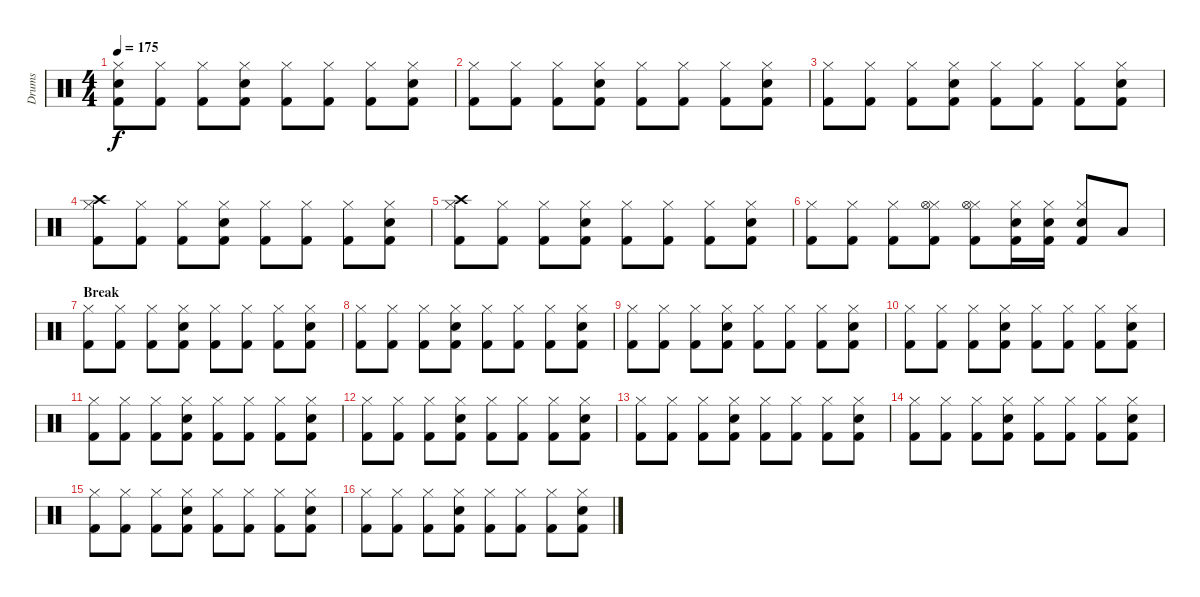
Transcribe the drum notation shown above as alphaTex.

\track ("Drums" "Drums") {instrument percussion}
\staff {score}
\articulation defaults
\ts (4 4)
\tempo 175
\clef neutral
\ks c
("Kick (hit) 2" "Hi-Hat (closed)" "Metronome (bell)").8{dy f} ("Kick (hit) 2" "Hi-Hat (closed)").8 ("Kick (hit) 2" "Hi-Hat (closed)").8 ("Kick (hit) 2" "Hi-Hat (closed)" "Snare (hit) 2").8 ("Kick (hit) 2" "Hi-Hat (closed)").8 ("Kick (hit) 2" "Hi-Hat (closed)").8 ("Kick (hit) 2" "Hi-Hat (closed)").8 ("Kick (hit) 2" "Hi-Hat (closed)" "Snare (hit) 2").8 |
("Kick (hit) 2" "Hi-Hat (closed)").8 ("Kick (hit) 2" "Hi-Hat (closed)").8 ("Kick (hit) 2" "Hi-Hat (closed)").8 ("Kick (hit) 2" "Hi-Hat (closed)" "Snare (hit) 2").8 ("Kick (hit) 2" "Hi-Hat (closed)").8 ("Kick (hit) 2" "Hi-Hat (closed)").8 ("Kick (hit) 2" "Hi-Hat (closed)").8 ("Kick (hit) 2" "Hi-Hat (closed)" "Snare (hit) 2").8 |
("Kick (hit) 2" "Hi-Hat (closed)").8 ("Kick (hit) 2" "Hi-Hat (closed)").8 ("Kick (hit) 2" "Hi-Hat (closed)").8 ("Kick (hit) 2" "Hi-Hat (closed)" "Snare (hit) 2").8 ("Kick (hit) 2" "Hi-Hat (closed)").8 ("Kick (hit) 2" "Hi-Hat (closed)").8 ("Kick (hit) 2" "Hi-Hat (closed)").8 ("Kick (hit) 2" "Hi-Hat (closed)" "Snare (hit) 2").8 |
("Kick (hit) 2" "Hi-Hat (closed)" "Crash high (hit)").8 ("Kick (hit) 2" "Hi-Hat (closed)").8 ("Kick (hit) 2" "Hi-Hat (closed)").8 ("Kick (hit) 2" "Hi-Hat (closed)" "Snare (hit) 2").8 ("Kick (hit) 2" "Hi-Hat (closed)").8 ("Kick (hit) 2" "Hi-Hat (closed)").8 ("Kick (hit) 2" "Hi-Hat (closed)").8 ("Kick (hit) 2" "Hi-Hat (closed)" "Snare (hit) 2").8 |
("Kick (hit) 2" "Hi-Hat (closed)" "Crash high (hit)").8 ("Kick (hit) 2" "Hi-Hat (closed)").8 ("Kick (hit) 2" "Hi-Hat (closed)").8 ("Kick (hit) 2" "Hi-Hat (closed)" "Snare (hit) 2").8 ("Kick (hit) 2" "Hi-Hat (closed)").8 ("Kick (hit) 2" "Hi-Hat (closed)").8 ("Kick (hit) 2" "Hi-Hat (closed)").8 ("Kick (hit) 2" "Hi-Hat (closed)" "Snare (hit) 2").8 |
("Kick (hit) 2" "Hi-Hat (closed)").8 ("Kick (hit) 2" "Hi-Hat (closed)").8 ("Kick (hit) 2" "Hi-Hat (closed)").8 ("Kick (hit) 2" "Hi-Hat (closed)" "Hi-Hat (open)").8 ("Kick (hit) 2" "Hi-Hat (closed)" "Hi-Hat (open)").8 ("Kick (hit) 2" "Hi-Hat (closed)" "Snare (hit) 2").16 ("Kick (hit) 2"{x} "Hi-Hat (closed)"{x} "Snare (hit) 2").16 ("Kick (hit) 2" "Hi-Hat (closed)" "Snare (hit) 2").8 "Low Floor Tom (hit)".8 |
\section ("" "Break")
("Kick (hit) 2" "Hi-Hat (closed)").8 ("Kick (hit) 2" "Hi-Hat (closed)").8 ("Kick (hit) 2" "Hi-Hat (closed)").8 ("Kick (hit) 2" "Hi-Hat (closed)" "Snare (hit) 2").8 ("Kick (hit) 2" "Hi-Hat (closed)").8 ("Kick (hit) 2" "Hi-Hat (closed)").8 ("Kick (hit) 2" "Hi-Hat (closed)").8 ("Kick (hit) 2" "Hi-Hat (closed)" "Snare (hit) 2").8 |
("Kick (hit) 2" "Hi-Hat (closed)").8 ("Kick (hit) 2" "Hi-Hat (closed)").8 ("Kick (hit) 2" "Hi-Hat (closed)").8 ("Kick (hit) 2" "Hi-Hat (closed)" "Snare (hit) 2").8 ("Kick (hit) 2" "Hi-Hat (closed)").8 ("Kick (hit) 2" "Hi-Hat (closed)").8 ("Kick (hit) 2" "Hi-Hat (closed)").8 ("Kick (hit) 2" "Hi-Hat (closed)" "Snare (hit) 2").8 |
("Kick (hit) 2" "Hi-Hat (closed)").8 ("Kick (hit) 2" "Hi-Hat (closed)").8 ("Kick (hit) 2" "Hi-Hat (closed)").8 ("Kick (hit) 2" "Hi-Hat (closed)" "Snare (hit) 2").8 ("Kick (hit) 2" "Hi-Hat (closed)").8 ("Kick (hit) 2" "Hi-Hat (closed)").8 ("Kick (hit) 2" "Hi-Hat (closed)").8 ("Kick (hit) 2" "Hi-Hat (closed)" "Snare (hit) 2").8 |
("Kick (hit) 2" "Hi-Hat (closed)").8 ("Kick (hit) 2" "Hi-Hat (closed)").8 ("Kick (hit) 2" "Hi-Hat (closed)").8 ("Kick (hit) 2" "Hi-Hat (closed)" "Snare (hit) 2").8 ("Kick (hit) 2" "Hi-Hat (closed)").8 ("Kick (hit) 2" "Hi-Hat (closed)").8 ("Kick (hit) 2" "Hi-Hat (closed)").8 ("Kick (hit) 2" "Hi-Hat (closed)" "Snare (hit) 2").8 |
("Kick (hit) 2" "Hi-Hat (closed)").8 ("Kick (hit) 2" "Hi-Hat (closed)").8 ("Kick (hit) 2" "Hi-Hat (closed)").8 ("Kick (hit) 2" "Hi-Hat (closed)" "Snare (hit) 2").8 ("Kick (hit) 2" "Hi-Hat (closed)").8 ("Kick (hit) 2" "Hi-Hat (closed)").8 ("Kick (hit) 2" "Hi-Hat (closed)").8 ("Kick (hit) 2" "Hi-Hat (closed)" "Snare (hit) 2").8 |
("Kick (hit) 2" "Hi-Hat (closed)").8 ("Kick (hit) 2" "Hi-Hat (closed)").8 ("Kick (hit) 2" "Hi-Hat (closed)").8 ("Kick (hit) 2" "Hi-Hat (closed)" "Snare (hit) 2").8 ("Kick (hit) 2" "Hi-Hat (closed)").8 ("Kick (hit) 2" "Hi-Hat (closed)").8 ("Kick (hit) 2" "Hi-Hat (closed)").8 ("Kick (hit) 2" "Hi-Hat (closed)" "Snare (hit) 2").8 |
("Kick (hit) 2" "Hi-Hat (closed)").8 ("Kick (hit) 2" "Hi-Hat (closed)").8 ("Kick (hit) 2" "Hi-Hat (closed)").8 ("Kick (hit) 2" "Hi-Hat (closed)" "Snare (hit) 2").8 ("Kick (hit) 2" "Hi-Hat (closed)").8 ("Kick (hit) 2" "Hi-Hat (closed)").8 ("Kick (hit) 2" "Hi-Hat (closed)").8 ("Kick (hit) 2" "Hi-Hat (closed)" "Snare (hit) 2").8 |
("Kick (hit) 2" "Hi-Hat (closed)").8 ("Kick (hit) 2" "Hi-Hat (closed)").8 ("Kick (hit) 2" "Hi-Hat (closed)").8 ("Kick (hit) 2" "Hi-Hat (closed)" "Snare (hit) 2").8 ("Kick (hit) 2" "Hi-Hat (closed)").8 ("Kick (hit) 2" "Hi-Hat (closed)").8 ("Kick (hit) 2" "Hi-Hat (closed)").8 ("Kick (hit) 2" "Hi-Hat (closed)" "Snare (hit) 2").8 |
("Kick (hit) 2" "Hi-Hat (closed)").8 ("Kick (hit) 2" "Hi-Hat (closed)").8 ("Kick (hit) 2" "Hi-Hat (closed)").8 ("Kick (hit) 2" "Hi-Hat (closed)" "Snare (hit) 2").8 ("Kick (hit) 2" "Hi-Hat (closed)").8 ("Kick (hit) 2" "Hi-Hat (closed)").8 ("Kick (hit) 2" "Hi-Hat (closed)").8 ("Kick (hit) 2" "Hi-Hat (closed)" "Snare (hit) 2").8 |
("Kick (hit) 2" "Hi-Hat (closed)").8 ("Kick (hit) 2" "Hi-Hat (closed)").8 ("Kick (hit) 2" "Hi-Hat (closed)").8 ("Kick (hit) 2" "Hi-Hat (closed)" "Snare (hit) 2").8 ("Kick (hit) 2" "Hi-Hat (closed)").8 ("Kick (hit) 2" "Hi-Hat (closed)").8 ("Kick (hit) 2" "Hi-Hat (closed)").8 ("Kick (hit) 2" "Hi-Hat (closed)" "Snare (hit) 2").8
